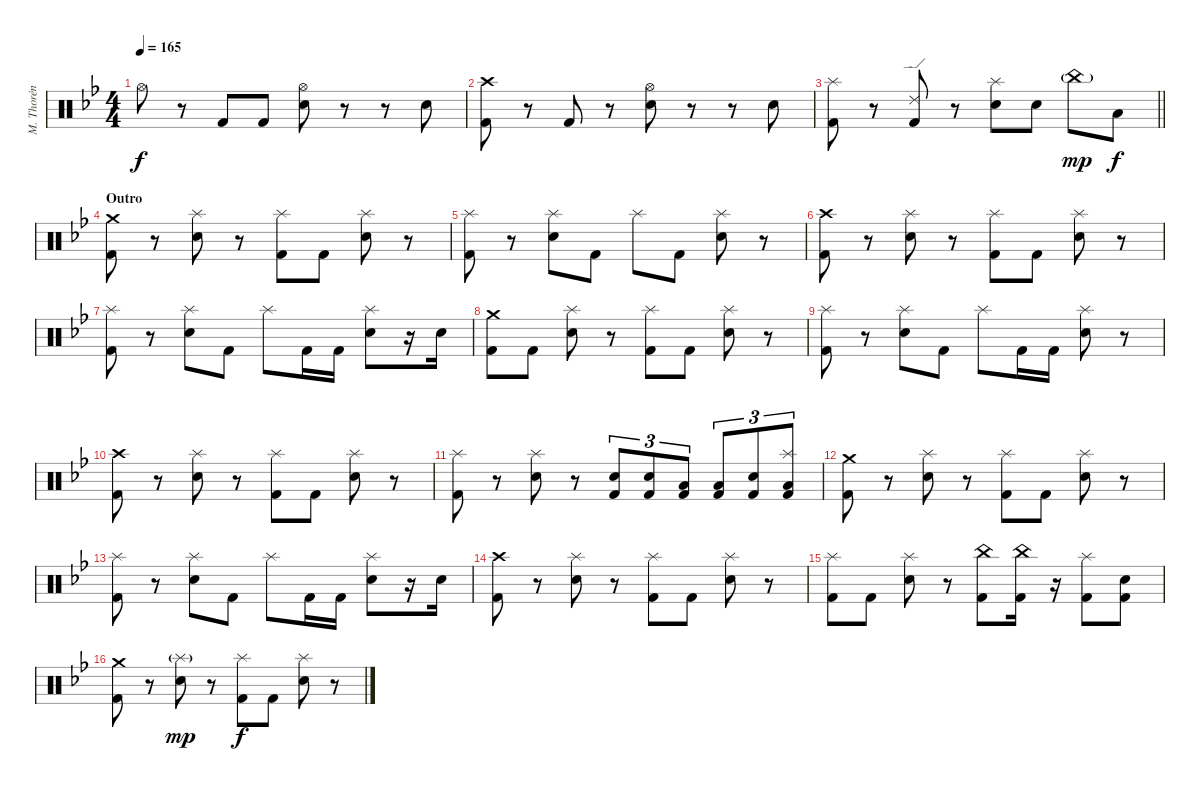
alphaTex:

\track ("M. Thorén (Drums)" "M. Thorén ") {instrument percussion}
\staff {score}
\articulation defaults
\ts (4 4)
\tempo 165
\clef neutral
\ks gminor "Hi-Hat (open)".8{dy f}
r.8 "Kick (hit) 2".8 "Kick (hit) 2".8 ("Hi-Hat (open)" "Electric Snare (hit)").8 r.8 r.8 "Electric Snare (hit)".8 |
("Crash high (hit)" "Kick (hit) 2").8 r.8 "Kick (hit) 2".8 r.8 ("Hi-Hat (open)" "Electric Snare (hit)").8 r.8 r.8 "Electric Snare (hit)".8 |
\barLineRight lightlight
("Splash (hit)" "Kick (hit) 2").8 r.8 ("Ride (edge) 2" "Kick (hit) 2").8 r.8 ("Splash (hit)" "Electric Snare (hit)").8 "Electric Snare (hit)".8 "China (hit)"{g}.8{dy mp} "Low Tom (hit)".8{dy f} |
\section ("" "Outro")
("Crash medium (hit)" "Kick (hit) 2").8 r.8 ("Splash (hit)" "Electric Snare (hit)").8 r.8 ("Splash (hit)" "Kick (hit) 2").8 "Kick (hit) 2".8 ("Splash (hit)" "Electric Snare (hit)").8 r.8 |
("Splash (hit)" "Kick (hit) 2").8 r.8 ("Splash (hit)" "Electric Snare (hit)").8 "Kick (hit) 2".8 "Splash (hit)".8 "Kick (hit) 2".8 ("Splash (hit)" "Electric Snare (hit)").8 r.8 |
("Crash high (hit)" "Kick (hit) 2").8 r.8 ("Splash (hit)" "Electric Snare (hit)").8 r.8 ("Splash (hit)" "Kick (hit) 2").8 "Kick (hit) 2".8 ("Splash (hit)" "Electric Snare (hit)").8 r.8 |
("Splash (hit)" "Kick (hit) 2").8 r.8 ("Splash (hit)" "Electric Snare (hit)").8 "Kick (hit) 2".8 "Splash (hit)".8 "Kick (hit) 2".16 "Kick (hit) 2".16 ("Splash (hit)" "Electric Snare (hit)").8 r.16 "Electric Snare (hit)".16 |
("Crash medium (hit)" "Kick (hit) 2").8 "Kick (hit) 2".8 ("Splash (hit)" "Electric Snare (hit)").8 r.8 ("Splash (hit)" "Kick (hit) 2").8 "Kick (hit) 2".8 ("Splash (hit)" "Electric Snare (hit)").8 r.8 |
("Splash (hit)" "Kick (hit) 2").8 r.8 ("Splash (hit)" "Electric Snare (hit)").8 "Kick (hit) 2".8 "Splash (hit)".8 "Kick (hit) 2".16 "Kick (hit) 2".16 ("Splash (hit)" "Electric Snare (hit)").8 r.8 |
("Crash high (hit)" "Kick (hit) 2").8 r.8 ("Splash (hit)" "Electric Snare (hit)").8 r.8 ("Splash (hit)" "Kick (hit) 2").8 "Kick (hit) 2".8 ("Splash (hit)" "Electric Snare (hit)").8 r.8 |
("Splash (hit)" "Kick (hit) 2").8 r.8 ("Splash (hit)" "Electric Snare (hit)").8 r.8 ("Electric Snare (hit)" "Kick (hit) 2").8{tu (3 2)} ("Electric Snare (hit)" "Kick (hit) 2").8{tu (3 2)} ("Low Tom (hit)" "Kick (hit) 2").8{tu (3 2)} ("Low Tom (hit)" "Kick (hit) 2").8{tu (3 2)} ("Electric Snare (hit)" "Kick (hit) 2").8{tu (3 2)} ("Splash (hit)" "Low Tom (hit)" "Kick (hit) 2").8{tu (3 2)} |
("Crash medium (hit)" "Kick (hit) 2").8 r.8 ("Splash (hit)" "Electric Snare (hit)").8 r.8 ("Splash (hit)" "Kick (hit) 2").8 "Kick (hit) 2".8 ("Splash (hit)" "Electric Snare (hit)").8 r.8 |
("Splash (hit)" "Kick (hit) 2").8 r.8 ("Splash (hit)" "Electric Snare (hit)").8 "Kick (hit) 2".8 "Splash (hit)".8 "Kick (hit) 2".16 "Kick (hit) 2".16 ("Splash (hit)" "Electric Snare (hit)").8 r.16 "Electric Snare (hit)".16 |
("Crash high (hit)" "Kick (hit) 2").8 r.8 ("Splash (hit)" "Electric Snare (hit)").8 r.8 ("Splash (hit)" "Kick (hit) 2").8 "Kick (hit) 2".8 ("Splash (hit)" "Electric Snare (hit)").8 r.8 |
("Splash (hit)" "Kick (hit) 2").8 "Kick (hit) 2".8 ("Splash (hit)" "Electric Snare (hit)").8 r.8 ("China (hit)" "Kick (hit) 2").8 ("China (hit)" "Kick (hit) 2").16 r.16 ("Splash (hit)" "Kick (hit) 2").8 ("Electric Snare (hit)" "Kick (hit) 2").8 |
("Crash medium (hit)" "Kick (hit) 2").8 r.8 ("Splash (hit)"{g} "Electric Snare (hit)").8{dy mp} r.8 ("Splash (hit)" "Kick (hit) 2").8{dy f} "Kick (hit) 2".8 ("Splash (hit)" "Electric Snare (hit)").8 r.8
